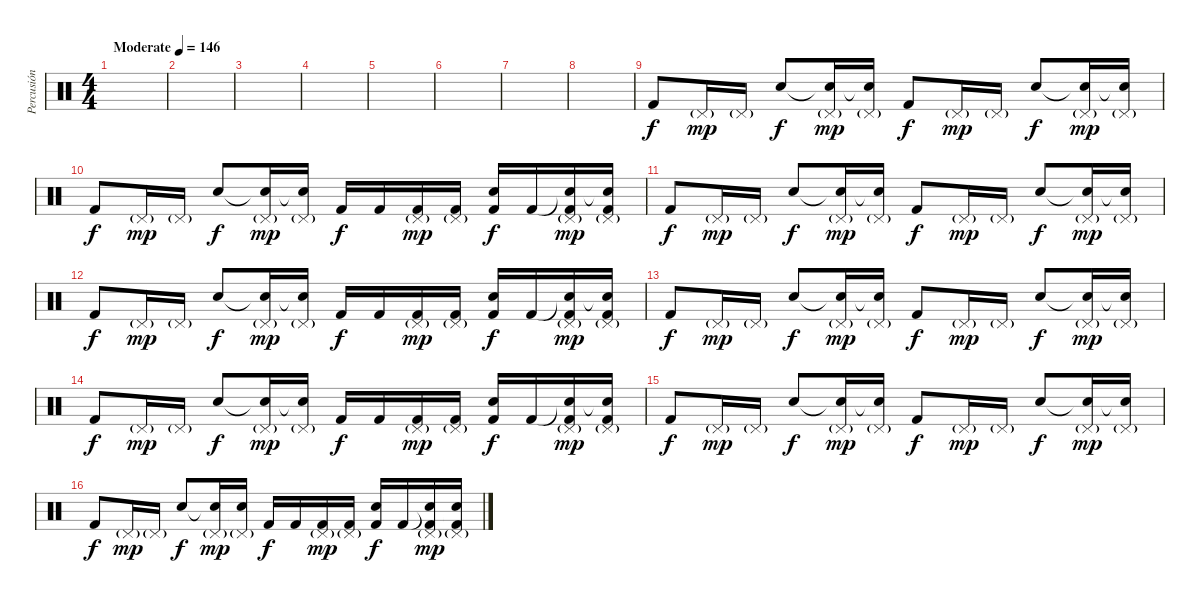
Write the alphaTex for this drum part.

\track ("Percusión" "Percusión") {instrument percussion}
\staff {score}
\articulation defaults
\ts (4 4)
\tempo (146 "Moderate")
\clef neutral
\ks c
|
|
|
|
|
|
|
|
"Kick (hit) 2".8 "Pedal Hi-Hat (hit)"{g}.16{dy mp} "Pedal Hi-Hat (hit)"{g}.16 "Snare (hit) 2".8{dy f} ("Snare (hit)"{t} "Pedal Hi-Hat (hit)"{g}).16{dy mp} ("Snare (hit)"{t} "Pedal Hi-Hat (hit)"{g}).16 "Kick (hit) 2".8{dy f} "Pedal Hi-Hat (hit)"{g}.16{dy mp} "Pedal Hi-Hat (hit)"{g}.16 "Snare (hit) 2".8{dy f} ("Snare (hit)"{t} "Pedal Hi-Hat (hit)"{g}).16{dy mp} ("Snare (hit)"{t} "Pedal Hi-Hat (hit)"{g}).16 |
"Kick (hit) 2".8{dy f} "Pedal Hi-Hat (hit)"{g}.16{dy mp} "Pedal Hi-Hat (hit)"{g}.16 "Snare (hit) 2".8{dy f} ("Snare (hit)"{t} "Pedal Hi-Hat (hit)"{g}).16{dy mp} ("Snare (hit)"{t} "Pedal Hi-Hat (hit)"{g}).16 "Kick (hit) 2".16{dy f} "Kick (hit) 2".16 ("Pedal Hi-Hat (hit)"{g} "Kick (hit) 2").16{dy mp} ("Pedal Hi-Hat (hit)"{g} "Kick (hit) 2").16 ("Snare (hit) 2" "Kick (hit) 2").16{dy f} "Kick (hit) 2".16 ("Snare (hit)"{t} "Pedal Hi-Hat (hit)"{g} "Kick (hit) 2").16{dy mp} ("Snare (hit)"{t} "Pedal Hi-Hat (hit)"{g} "Kick (hit) 2").16 |
"Kick (hit) 2".8{dy f} "Pedal Hi-Hat (hit)"{g}.16{dy mp} "Pedal Hi-Hat (hit)"{g}.16 "Snare (hit) 2".8{dy f} ("Snare (hit)"{t} "Pedal Hi-Hat (hit)"{g}).16{dy mp} ("Snare (hit)"{t} "Pedal Hi-Hat (hit)"{g}).16 "Kick (hit) 2".8{dy f} "Pedal Hi-Hat (hit)"{g}.16{dy mp} "Pedal Hi-Hat (hit)"{g}.16 "Snare (hit) 2".8{dy f} ("Snare (hit)"{t} "Pedal Hi-Hat (hit)"{g}).16{dy mp} ("Snare (hit)"{t} "Pedal Hi-Hat (hit)"{g}).16 |
"Kick (hit) 2".8{dy f} "Pedal Hi-Hat (hit)"{g}.16{dy mp} "Pedal Hi-Hat (hit)"{g}.16 "Snare (hit) 2".8{dy f} ("Snare (hit)"{t} "Pedal Hi-Hat (hit)"{g}).16{dy mp} ("Snare (hit)"{t} "Pedal Hi-Hat (hit)"{g}).16 "Kick (hit) 2".16{dy f} "Kick (hit) 2".16 ("Pedal Hi-Hat (hit)"{g} "Kick (hit) 2").16{dy mp} ("Pedal Hi-Hat (hit)"{g} "Kick (hit) 2").16 ("Snare (hit) 2" "Kick (hit) 2").16{dy f} "Kick (hit) 2".16 ("Snare (hit)"{t} "Pedal Hi-Hat (hit)"{g} "Kick (hit) 2").16{dy mp} ("Snare (hit)"{t} "Pedal Hi-Hat (hit)"{g} "Kick (hit) 2").16 |
"Kick (hit) 2".8{dy f} "Pedal Hi-Hat (hit)"{g}.16{dy mp} "Pedal Hi-Hat (hit)"{g}.16 "Snare (hit) 2".8{dy f} ("Snare (hit)"{t} "Pedal Hi-Hat (hit)"{g}).16{dy mp} ("Snare (hit)"{t} "Pedal Hi-Hat (hit)"{g}).16 "Kick (hit) 2".8{dy f} "Pedal Hi-Hat (hit)"{g}.16{dy mp} "Pedal Hi-Hat (hit)"{g}.16 "Snare (hit) 2".8{dy f} ("Snare (hit)"{t} "Pedal Hi-Hat (hit)"{g}).16{dy mp} ("Snare (hit)"{t} "Pedal Hi-Hat (hit)"{g}).16 |
"Kick (hit) 2".8{dy f} "Pedal Hi-Hat (hit)"{g}.16{dy mp} "Pedal Hi-Hat (hit)"{g}.16 "Snare (hit) 2".8{dy f} ("Snare (hit)"{t} "Pedal Hi-Hat (hit)"{g}).16{dy mp} ("Snare (hit)"{t} "Pedal Hi-Hat (hit)"{g}).16 "Kick (hit) 2".16{dy f} "Kick (hit) 2".16 ("Pedal Hi-Hat (hit)"{g} "Kick (hit) 2").16{dy mp} ("Pedal Hi-Hat (hit)"{g} "Kick (hit) 2").16 ("Snare (hit) 2" "Kick (hit) 2").16{dy f} "Kick (hit) 2".16 ("Snare (hit)"{t} "Pedal Hi-Hat (hit)"{g} "Kick (hit) 2").16{dy mp} ("Snare (hit)"{t} "Pedal Hi-Hat (hit)"{g} "Kick (hit) 2").16 |
"Kick (hit) 2".8{dy f} "Pedal Hi-Hat (hit)"{g}.16{dy mp} "Pedal Hi-Hat (hit)"{g}.16 "Snare (hit) 2".8{dy f} ("Snare (hit)"{t} "Pedal Hi-Hat (hit)"{g}).16{dy mp} ("Snare (hit)"{t} "Pedal Hi-Hat (hit)"{g}).16 "Kick (hit) 2".8{dy f} "Pedal Hi-Hat (hit)"{g}.16{dy mp} "Pedal Hi-Hat (hit)"{g}.16 "Snare (hit) 2".8{dy f} ("Snare (hit)"{t} "Pedal Hi-Hat (hit)"{g}).16{dy mp} ("Snare (hit)"{t} "Pedal Hi-Hat (hit)"{g}).16 |
"Kick (hit) 2".8{dy f} "Pedal Hi-Hat (hit)"{g}.16{dy mp} "Pedal Hi-Hat (hit)"{g}.16 "Snare (hit) 2".8{dy f} ("Snare (hit)"{t} "Pedal Hi-Hat (hit)"{g}).16{dy mp} ("Snare (hit)"{t} "Pedal Hi-Hat (hit)"{g}).16 "Kick (hit) 2".16{dy f} "Kick (hit) 2".16 ("Pedal Hi-Hat (hit)"{g} "Kick (hit) 2").16{dy mp} ("Pedal Hi-Hat (hit)"{g} "Kick (hit) 2").16 ("Snare (hit) 2" "Kick (hit) 2").16{dy f} "Kick (hit) 2".16 ("Snare (hit)"{t} "Pedal Hi-Hat (hit)"{g} "Kick (hit) 2").16{dy mp} ("Snare (hit)"{t} "Pedal Hi-Hat (hit)"{g} "Kick (hit) 2").16
